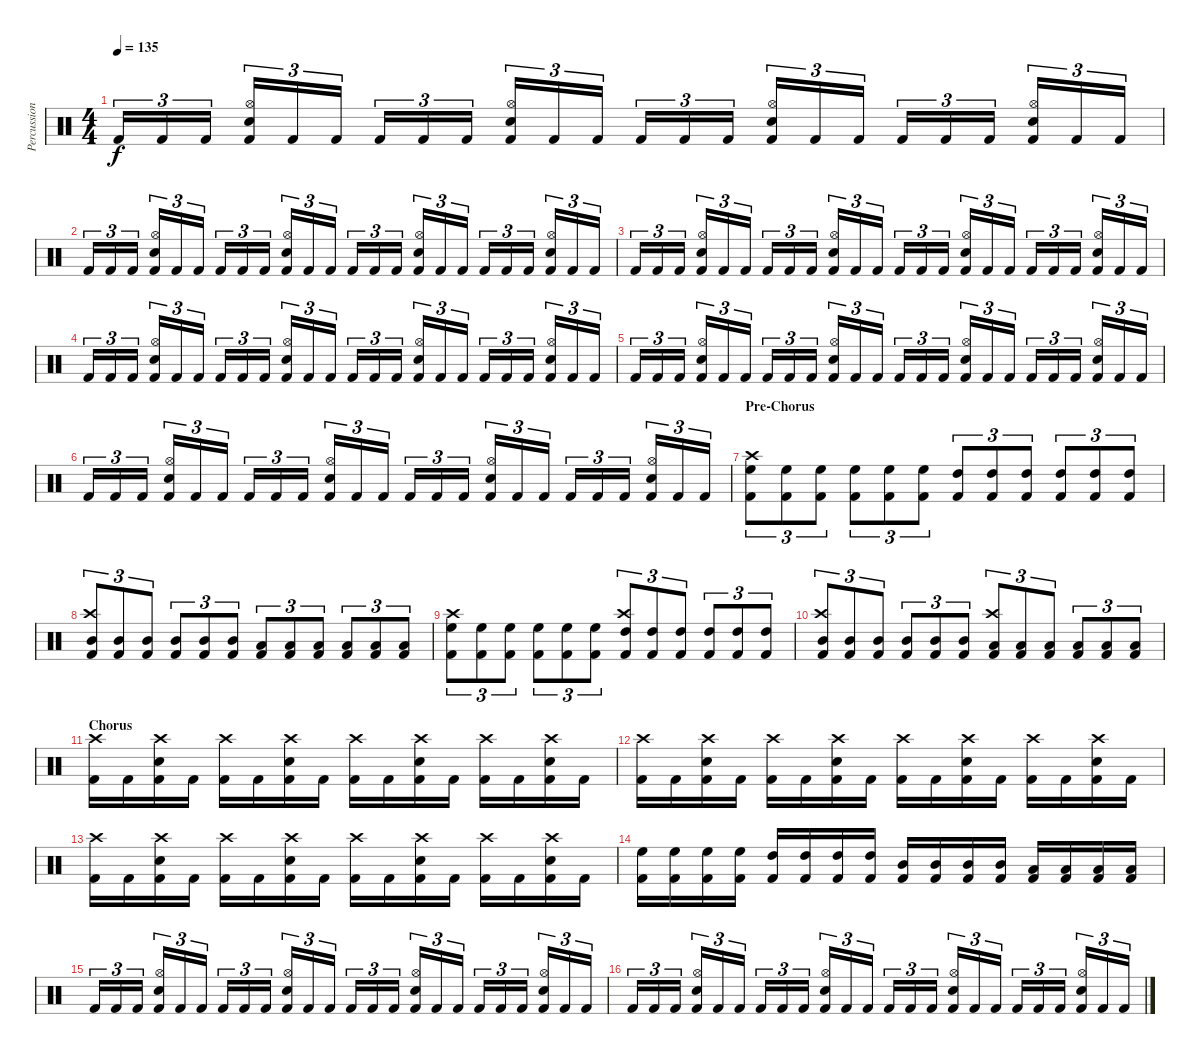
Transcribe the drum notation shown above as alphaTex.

\track ("Percussion" "Percussion") {instrument percussion}
\staff {score}
\articulation defaults
\ts (4 4)
\tempo 135
\clef neutral
\ks c "Kick (hit) 2".16{tu (3 2) dy f} "Kick (hit) 2".16{tu (3 2)} "Kick (hit) 2".16{tu (3 2)}
("Hi-Hat (open)" "Snare (hit) 2" "Kick (hit) 2").16{tu (3 2)} "Kick (hit) 2".16{tu (3 2)} "Kick (hit) 2".16{tu (3 2)} "Kick (hit) 2".16{tu (3 2)} "Kick (hit) 2".16{tu (3 2)} "Kick (hit) 2".16{tu (3 2)} ("Hi-Hat (open)" "Snare (hit) 2" "Kick (hit) 2").16{tu (3 2)} "Kick (hit) 2".16{tu (3 2)} "Kick (hit) 2".16{tu (3 2)} "Kick (hit) 2".16{tu (3 2)} "Kick (hit) 2".16{tu (3 2)} "Kick (hit) 2".16{tu (3 2)} ("Hi-Hat (open)" "Snare (hit) 2" "Kick (hit) 2").16{tu (3 2)} "Kick (hit) 2".16{tu (3 2)} "Kick (hit) 2".16{tu (3 2)} "Kick (hit) 2".16{tu (3 2)} "Kick (hit) 2".16{tu (3 2)} "Kick (hit) 2".16{tu (3 2)} ("Hi-Hat (open)" "Snare (hit) 2" "Kick (hit) 2").16{tu (3 2)} "Kick (hit) 2".16{tu (3 2)} "Kick (hit) 2".16{tu (3 2)} |
"Kick (hit) 2".16{tu (3 2)} "Kick (hit) 2".16{tu (3 2)} "Kick (hit) 2".16{tu (3 2)} ("Hi-Hat (open)" "Snare (hit) 2" "Kick (hit) 2").16{tu (3 2)} "Kick (hit) 2".16{tu (3 2)} "Kick (hit) 2".16{tu (3 2)} "Kick (hit) 2".16{tu (3 2)} "Kick (hit) 2".16{tu (3 2)} "Kick (hit) 2".16{tu (3 2)} ("Hi-Hat (open)" "Snare (hit) 2" "Kick (hit) 2").16{tu (3 2)} "Kick (hit) 2".16{tu (3 2)} "Kick (hit) 2".16{tu (3 2)} "Kick (hit) 2".16{tu (3 2)} "Kick (hit) 2".16{tu (3 2)} "Kick (hit) 2".16{tu (3 2)} ("Hi-Hat (open)" "Snare (hit) 2" "Kick (hit) 2").16{tu (3 2)} "Kick (hit) 2".16{tu (3 2)} "Kick (hit) 2".16{tu (3 2)} "Kick (hit) 2".16{tu (3 2)} "Kick (hit) 2".16{tu (3 2)} "Kick (hit) 2".16{tu (3 2)} ("Hi-Hat (open)" "Snare (hit) 2" "Kick (hit) 2").16{tu (3 2)} "Kick (hit) 2".16{tu (3 2)} "Kick (hit) 2".16{tu (3 2)} |
"Kick (hit) 2".16{tu (3 2)} "Kick (hit) 2".16{tu (3 2)} "Kick (hit) 2".16{tu (3 2)} ("Hi-Hat (open)" "Snare (hit) 2" "Kick (hit) 2").16{tu (3 2)} "Kick (hit) 2".16{tu (3 2)} "Kick (hit) 2".16{tu (3 2)} "Kick (hit) 2".16{tu (3 2)} "Kick (hit) 2".16{tu (3 2)} "Kick (hit) 2".16{tu (3 2)} ("Hi-Hat (open)" "Snare (hit) 2" "Kick (hit) 2").16{tu (3 2)} "Kick (hit) 2".16{tu (3 2)} "Kick (hit) 2".16{tu (3 2)} "Kick (hit) 2".16{tu (3 2)} "Kick (hit) 2".16{tu (3 2)} "Kick (hit) 2".16{tu (3 2)} ("Hi-Hat (open)" "Snare (hit) 2" "Kick (hit) 2").16{tu (3 2)} "Kick (hit) 2".16{tu (3 2)} "Kick (hit) 2".16{tu (3 2)} "Kick (hit) 2".16{tu (3 2)} "Kick (hit) 2".16{tu (3 2)} "Kick (hit) 2".16{tu (3 2)} ("Hi-Hat (open)" "Snare (hit) 2" "Kick (hit) 2").16{tu (3 2)} "Kick (hit) 2".16{tu (3 2)} "Kick (hit) 2".16{tu (3 2)} |
"Kick (hit) 2".16{tu (3 2)} "Kick (hit) 2".16{tu (3 2)} "Kick (hit) 2".16{tu (3 2)} ("Hi-Hat (open)" "Snare (hit) 2" "Kick (hit) 2").16{tu (3 2)} "Kick (hit) 2".16{tu (3 2)} "Kick (hit) 2".16{tu (3 2)} "Kick (hit) 2".16{tu (3 2)} "Kick (hit) 2".16{tu (3 2)} "Kick (hit) 2".16{tu (3 2)} ("Hi-Hat (open)" "Snare (hit) 2" "Kick (hit) 2").16{tu (3 2)} "Kick (hit) 2".16{tu (3 2)} "Kick (hit) 2".16{tu (3 2)} "Kick (hit) 2".16{tu (3 2)} "Kick (hit) 2".16{tu (3 2)} "Kick (hit) 2".16{tu (3 2)} ("Hi-Hat (open)" "Snare (hit) 2" "Kick (hit) 2").16{tu (3 2)} "Kick (hit) 2".16{tu (3 2)} "Kick (hit) 2".16{tu (3 2)} "Kick (hit) 2".16{tu (3 2)} "Kick (hit) 2".16{tu (3 2)} "Kick (hit) 2".16{tu (3 2)} ("Hi-Hat (open)" "Snare (hit) 2" "Kick (hit) 2").16{tu (3 2)} "Kick (hit) 2".16{tu (3 2)} "Kick (hit) 2".16{tu (3 2)} |
"Kick (hit) 2".16{tu (3 2)} "Kick (hit) 2".16{tu (3 2)} "Kick (hit) 2".16{tu (3 2)} ("Hi-Hat (open)" "Snare (hit) 2" "Kick (hit) 2").16{tu (3 2)} "Kick (hit) 2".16{tu (3 2)} "Kick (hit) 2".16{tu (3 2)} "Kick (hit) 2".16{tu (3 2)} "Kick (hit) 2".16{tu (3 2)} "Kick (hit) 2".16{tu (3 2)} ("Hi-Hat (open)" "Snare (hit) 2" "Kick (hit) 2").16{tu (3 2)} "Kick (hit) 2".16{tu (3 2)} "Kick (hit) 2".16{tu (3 2)} "Kick (hit) 2".16{tu (3 2)} "Kick (hit) 2".16{tu (3 2)} "Kick (hit) 2".16{tu (3 2)} ("Hi-Hat (open)" "Snare (hit) 2" "Kick (hit) 2").16{tu (3 2)} "Kick (hit) 2".16{tu (3 2)} "Kick (hit) 2".16{tu (3 2)} "Kick (hit) 2".16{tu (3 2)} "Kick (hit) 2".16{tu (3 2)} "Kick (hit) 2".16{tu (3 2)} ("Hi-Hat (open)" "Snare (hit) 2" "Kick (hit) 2").16{tu (3 2)} "Kick (hit) 2".16{tu (3 2)} "Kick (hit) 2".16{tu (3 2)} |
"Kick (hit) 2".16{tu (3 2)} "Kick (hit) 2".16{tu (3 2)} "Kick (hit) 2".16{tu (3 2)} ("Hi-Hat (open)" "Snare (hit) 2" "Kick (hit) 2").16{tu (3 2)} "Kick (hit) 2".16{tu (3 2)} "Kick (hit) 2".16{tu (3 2)} "Kick (hit) 2".16{tu (3 2)} "Kick (hit) 2".16{tu (3 2)} "Kick (hit) 2".16{tu (3 2)} ("Hi-Hat (open)" "Snare (hit) 2" "Kick (hit) 2").16{tu (3 2)} "Kick (hit) 2".16{tu (3 2)} "Kick (hit) 2".16{tu (3 2)} "Kick (hit) 2".16{tu (3 2)} "Kick (hit) 2".16{tu (3 2)} "Kick (hit) 2".16{tu (3 2)} ("Hi-Hat (open)" "Snare (hit) 2" "Kick (hit) 2").16{tu (3 2)} "Kick (hit) 2".16{tu (3 2)} "Kick (hit) 2".16{tu (3 2)} "Kick (hit) 2".16{tu (3 2)} "Kick (hit) 2".16{tu (3 2)} "Kick (hit) 2".16{tu (3 2)} ("Hi-Hat (open)" "Snare (hit) 2" "Kick (hit) 2").16{tu (3 2)} "Kick (hit) 2".16{tu (3 2)} "Kick (hit) 2".16{tu (3 2)} |
\section ("" "Pre-Chorus")
("High Floor Tom (hit)" "Crash high (hit)" "Kick (hit) 2").8{tu (3 2)} ("High Floor Tom (hit)" "Kick (hit) 2").8{tu (3 2)} ("High Floor Tom (hit)" "Kick (hit) 2").8{tu (3 2)} ("High Floor Tom (hit)" "Kick (hit) 2").8{tu (3 2)} ("High Floor Tom (hit)" "Kick (hit) 2").8{tu (3 2)} ("High Floor Tom (hit)" "Kick (hit) 2").8{tu (3 2)} ("High Tom (hit)" "Kick (hit) 2").8{tu (3 2)} ("High Tom (hit)" "Kick (hit) 2").8{tu (3 2)} ("High Tom (hit)" "Kick (hit) 2").8{tu (3 2)} ("High Tom (hit)" "Kick (hit) 2").8{tu (3 2)} ("High Tom (hit)" "Kick (hit) 2").8{tu (3 2)} ("High Tom (hit)" "Kick (hit) 2").8{tu (3 2)} |
("Mid Tom (hit)" "Crash high (hit)" "Kick (hit) 2").8{tu (3 2)} ("Mid Tom (hit)" "Kick (hit) 2").8{tu (3 2)} ("Mid Tom (hit)" "Kick (hit) 2").8{tu (3 2)} ("Mid Tom (hit)" "Kick (hit) 2").8{tu (3 2)} ("Mid Tom (hit)" "Kick (hit) 2").8{tu (3 2)} ("Mid Tom (hit)" "Kick (hit) 2").8{tu (3 2)} ("Low Tom (hit)" "Kick (hit) 2").8{tu (3 2)} ("Low Tom (hit)" "Kick (hit) 2").8{tu (3 2)} ("Low Tom (hit)" "Kick (hit) 2").8{tu (3 2)} ("Low Tom (hit)" "Kick (hit) 2").8{tu (3 2)} ("Low Tom (hit)" "Kick (hit) 2").8{tu (3 2)} ("Low Tom (hit)" "Kick (hit) 2").8{tu (3 2)} |
("High Floor Tom (hit)" "Crash high (hit)" "Kick (hit) 2").8{tu (3 2)} ("High Floor Tom (hit)" "Kick (hit) 2").8{tu (3 2)} ("High Floor Tom (hit)" "Kick (hit) 2").8{tu (3 2)} ("High Floor Tom (hit)" "Kick (hit) 2").8{tu (3 2)} ("High Floor Tom (hit)" "Kick (hit) 2").8{tu (3 2)} ("High Floor Tom (hit)" "Kick (hit) 2").8{tu (3 2)} ("High Tom (hit)" "Crash high (hit)" "Kick (hit) 2").8{tu (3 2)} ("High Tom (hit)" "Kick (hit) 2").8{tu (3 2)} ("High Tom (hit)" "Kick (hit) 2").8{tu (3 2)} ("High Tom (hit)" "Kick (hit) 2").8{tu (3 2)} ("High Tom (hit)" "Kick (hit) 2").8{tu (3 2)} ("High Tom (hit)" "Kick (hit) 2").8{tu (3 2)} |
("Mid Tom (hit)" "Crash high (hit)" "Kick (hit) 2").8{tu (3 2)} ("Mid Tom (hit)" "Kick (hit) 2").8{tu (3 2)} ("Mid Tom (hit)" "Kick (hit) 2").8{tu (3 2)} ("Mid Tom (hit)" "Kick (hit) 2").8{tu (3 2)} ("Mid Tom (hit)" "Kick (hit) 2").8{tu (3 2)} ("Mid Tom (hit)" "Kick (hit) 2").8{tu (3 2)} ("Low Tom (hit)" "Crash high (hit)" "Kick (hit) 2").8{tu (3 2)} ("Low Tom (hit)" "Kick (hit) 2").8{tu (3 2)} ("Low Tom (hit)" "Kick (hit) 2").8{tu (3 2)} ("Low Tom (hit)" "Kick (hit) 2").8{tu (3 2)} ("Low Tom (hit)" "Kick (hit) 2").8{tu (3 2)} ("Low Tom (hit)" "Kick (hit) 2").8{tu (3 2)} |
\section ("" "Chorus")
("Crash high (hit)" "Kick (hit) 2").16 "Kick (hit) 2".16 ("Crash high (hit)" "Snare (hit) 2" "Kick (hit) 2").16 "Kick (hit) 2".16 ("Crash high (hit)" "Kick (hit) 2").16 "Kick (hit) 2".16 ("Crash high (hit)" "Snare (hit) 2" "Kick (hit) 2").16 "Kick (hit) 2".16 ("Crash high (hit)" "Kick (hit) 2").16 "Kick (hit) 2".16 ("Crash high (hit)" "Snare (hit) 2" "Kick (hit) 2").16 "Kick (hit) 2".16 ("Crash high (hit)" "Kick (hit) 2").16 "Kick (hit) 2".16 ("Crash high (hit)" "Snare (hit) 2" "Kick (hit) 2").16 "Kick (hit) 2".16 |
("Crash high (hit)" "Kick (hit) 2").16 "Kick (hit) 2".16 ("Crash high (hit)" "Snare (hit) 2" "Kick (hit) 2").16 "Kick (hit) 2".16 ("Crash high (hit)" "Kick (hit) 2").16 "Kick (hit) 2".16 ("Crash high (hit)" "Snare (hit) 2" "Kick (hit) 2").16 "Kick (hit) 2".16 ("Crash high (hit)" "Kick (hit) 2").16 "Kick (hit) 2".16 ("Crash high (hit)" "Snare (hit) 2" "Kick (hit) 2").16 "Kick (hit) 2".16 ("Crash high (hit)" "Kick (hit) 2").16 "Kick (hit) 2".16 ("Crash high (hit)" "Snare (hit) 2" "Kick (hit) 2").16 "Kick (hit) 2".16 |
("Crash high (hit)" "Kick (hit) 2").16 "Kick (hit) 2".16 ("Crash high (hit)" "Snare (hit) 2" "Kick (hit) 2").16 "Kick (hit) 2".16 ("Crash high (hit)" "Kick (hit) 2").16 "Kick (hit) 2".16 ("Crash high (hit)" "Snare (hit) 2" "Kick (hit) 2").16 "Kick (hit) 2".16 ("Crash high (hit)" "Kick (hit) 2").16 "Kick (hit) 2".16 ("Crash high (hit)" "Snare (hit) 2" "Kick (hit) 2").16 "Kick (hit) 2".16 ("Crash high (hit)" "Kick (hit) 2").16 "Kick (hit) 2".16 ("Crash high (hit)" "Snare (hit) 2" "Kick (hit) 2").16 "Kick (hit) 2".16 |
("High Floor Tom (hit)" "Kick (hit) 2").16 ("High Floor Tom (hit)" "Kick (hit) 2").16 ("High Floor Tom (hit)" "Kick (hit) 2").16 ("High Floor Tom (hit)" "Kick (hit) 2").16 ("High Tom (hit)" "Kick (hit) 2").16 ("High Tom (hit)" "Kick (hit) 2").16 ("High Tom (hit)" "Kick (hit) 2").16 ("High Tom (hit)" "Kick (hit) 2").16 ("Mid Tom (hit)" "Kick (hit) 2").16 ("Mid Tom (hit)" "Kick (hit) 2").16 ("Mid Tom (hit)" "Kick (hit) 2").16 ("Mid Tom (hit)" "Kick (hit) 2").16 ("Low Tom (hit)" "Kick (hit) 2").16 ("Low Tom (hit)" "Kick (hit) 2").16 ("Low Tom (hit)" "Kick (hit) 2").16 ("Low Tom (hit)" "Kick (hit) 2").16 |
"Kick (hit) 2".16{tu (3 2)} "Kick (hit) 2".16{tu (3 2)} "Kick (hit) 2".16{tu (3 2)} ("Hi-Hat (open)" "Snare (hit) 2" "Kick (hit) 2").16{tu (3 2)} "Kick (hit) 2".16{tu (3 2)} "Kick (hit) 2".16{tu (3 2)} "Kick (hit) 2".16{tu (3 2)} "Kick (hit) 2".16{tu (3 2)} "Kick (hit) 2".16{tu (3 2)} ("Hi-Hat (open)" "Snare (hit) 2" "Kick (hit) 2").16{tu (3 2)} "Kick (hit) 2".16{tu (3 2)} "Kick (hit) 2".16{tu (3 2)} "Kick (hit) 2".16{tu (3 2)} "Kick (hit) 2".16{tu (3 2)} "Kick (hit) 2".16{tu (3 2)} ("Hi-Hat (open)" "Snare (hit) 2" "Kick (hit) 2").16{tu (3 2)} "Kick (hit) 2".16{tu (3 2)} "Kick (hit) 2".16{tu (3 2)} "Kick (hit) 2".16{tu (3 2)} "Kick (hit) 2".16{tu (3 2)} "Kick (hit) 2".16{tu (3 2)} ("Hi-Hat (open)" "Snare (hit) 2" "Kick (hit) 2").16{tu (3 2)} "Kick (hit) 2".16{tu (3 2)} "Kick (hit) 2".16{tu (3 2)} |
"Kick (hit) 2".16{tu (3 2)} "Kick (hit) 2".16{tu (3 2)} "Kick (hit) 2".16{tu (3 2)} ("Hi-Hat (open)" "Snare (hit) 2" "Kick (hit) 2").16{tu (3 2)} "Kick (hit) 2".16{tu (3 2)} "Kick (hit) 2".16{tu (3 2)} "Kick (hit) 2".16{tu (3 2)} "Kick (hit) 2".16{tu (3 2)} "Kick (hit) 2".16{tu (3 2)} ("Hi-Hat (open)" "Snare (hit) 2" "Kick (hit) 2").16{tu (3 2)} "Kick (hit) 2".16{tu (3 2)} "Kick (hit) 2".16{tu (3 2)} "Kick (hit) 2".16{tu (3 2)} "Kick (hit) 2".16{tu (3 2)} "Kick (hit) 2".16{tu (3 2)} ("Hi-Hat (open)" "Snare (hit) 2" "Kick (hit) 2").16{tu (3 2)} "Kick (hit) 2".16{tu (3 2)} "Kick (hit) 2".16{tu (3 2)} "Kick (hit) 2".16{tu (3 2)} "Kick (hit) 2".16{tu (3 2)} "Kick (hit) 2".16{tu (3 2)} ("Hi-Hat (open)" "Snare (hit) 2" "Kick (hit) 2").16{tu (3 2)} "Kick (hit) 2".16{tu (3 2)} "Kick (hit) 2".16{tu (3 2)}
